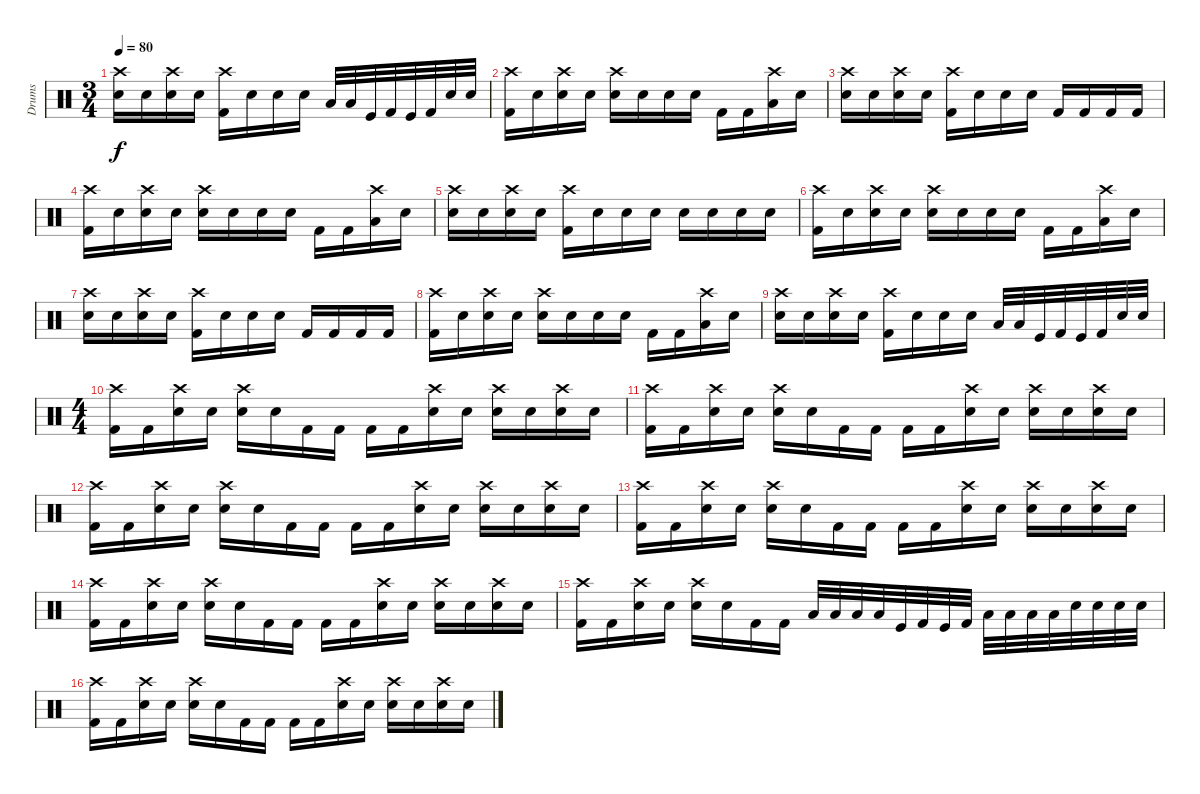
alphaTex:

\track ("Drums" "Drums") {instrument percussion}
\staff {score}
\articulation defaults
\ts (3 4)
\tempo 80
\clef neutral
\ks c
("Crash high (hit)" "Snare (hit) 2").16{dy f} "Snare (hit)"{x}.16 ("Crash high (hit)" "Snare (hit)"{x}).16 "Snare (hit)"{x}.16 ("Crash high (hit)" "Kick (hit) 2").16 "Snare (hit)"{x}.16 "Snare (hit) 2".16 "Snare (hit)"{x}.16 "Low Floor Tom (hit)".32 "Low Floor Tom (hit)".32 "Kick (hit)".32 "Kick (hit) 2".32 "Kick (hit)".32 "Kick (hit) 2".32 "Snare (hit) 2".32 "Snare (hit) 2".32 |
("Crash high (hit)" "Kick (hit) 2").16 "Snare (hit)"{x}.16 ("Crash high (hit)" "Snare (hit)"{x}).16 "Snare (hit)"{x}.16 ("Crash high (hit)" "Snare (hit) 2").16 "Snare (hit)"{x}.16 "Snare (hit)"{x}.16 "Snare (hit)"{x}.16 "Kick (hit) 2".16 "Kick (hit) 2".16 ("Crash high (hit)" "Low Floor Tom (hit)"{x}).16 "Snare (hit)"{x}.16 |
("Crash high (hit)" "Snare (hit) 2").16 "Snare (hit)"{x}.16 ("Crash high (hit)" "Snare (hit)"{x}).16 "Snare (hit)"{x}.16 ("Crash high (hit)" "Kick (hit) 2").16 "Snare (hit)"{x}.16 "Snare (hit) 2".16 "Snare (hit)"{x}.16 "Kick (hit) 2".16 "Kick (hit) 2".16 "Kick (hit) 2".16 "Kick (hit) 2".16 |
("Crash high (hit)" "Kick (hit) 2").16 "Snare (hit)"{x}.16 ("Crash high (hit)" "Snare (hit)"{x}).16 "Snare (hit)"{x}.16 ("Crash high (hit)" "Snare (hit) 2").16 "Snare (hit)"{x}.16 "Snare (hit)"{x}.16 "Snare (hit)"{x}.16 "Kick (hit) 2".16 "Kick (hit) 2".16 ("Crash high (hit)" "Low Floor Tom (hit)"{x}).16 "Snare (hit)"{x}.16 |
("Crash high (hit)" "Snare (hit) 2").16 "Snare (hit)"{x}.16 ("Crash high (hit)" "Snare (hit)"{x}).16 "Snare (hit)"{x}.16 ("Crash high (hit)" "Kick (hit) 2").16 "Snare (hit)"{x}.16 "Snare (hit) 2".16 "Snare (hit)"{x}.16 "Snare (hit) 2".16 "Snare (hit) 2".16 "Snare (hit) 2".16 "Snare (hit) 2".16 |
("Crash high (hit)" "Kick (hit) 2").16 "Snare (hit)"{x}.16 ("Crash high (hit)" "Snare (hit)"{x}).16 "Snare (hit)"{x}.16 ("Crash high (hit)" "Snare (hit) 2").16 "Snare (hit)"{x}.16 "Snare (hit)"{x}.16 "Snare (hit)"{x}.16 "Kick (hit) 2".16 "Kick (hit) 2".16 ("Crash high (hit)" "Low Floor Tom (hit)"{x}).16 "Snare (hit)"{x}.16 |
("Crash high (hit)" "Snare (hit) 2").16 "Snare (hit)"{x}.16 ("Crash high (hit)" "Snare (hit)"{x}).16 "Snare (hit)"{x}.16 ("Crash high (hit)" "Kick (hit) 2").16 "Snare (hit)"{x}.16 "Snare (hit) 2".16 "Snare (hit)"{x}.16 "Kick (hit) 2".16 "Kick (hit) 2".16 "Kick (hit) 2".16 "Kick (hit) 2".16 |
("Crash high (hit)" "Kick (hit) 2").16 "Snare (hit)"{x}.16 ("Crash high (hit)" "Snare (hit)"{x}).16 "Snare (hit)"{x}.16 ("Crash high (hit)" "Snare (hit) 2").16 "Snare (hit)"{x}.16 "Snare (hit)"{x}.16 "Snare (hit)"{x}.16 "Kick (hit) 2".16 "Kick (hit) 2".16 ("Crash high (hit)" "Low Floor Tom (hit)"{x}).16 "Snare (hit)"{x}.16 |
("Crash high (hit)" "Snare (hit) 2").16 "Snare (hit)"{x}.16 ("Crash high (hit)" "Snare (hit)"{x}).16 "Snare (hit)"{x}.16 ("Crash high (hit)" "Kick (hit) 2").16 "Snare (hit)"{x}.16 "Snare (hit) 2".16 "Snare (hit)"{x}.16 "Low Floor Tom (hit)".32 "Low Floor Tom (hit)".32 "Kick (hit)".32 "Kick (hit) 2".32 "Kick (hit)".32 "Kick (hit) 2".32 "Snare (hit) 2".32 "Snare (hit) 2".32 |
\ts (4 4)
\section ("" "")
("Crash high (hit)" "Kick (hit) 2").16 "Kick (hit) 2".16 ("Crash high (hit)" "Snare (hit)"{x}).16 "Snare (hit)"{x}.16 ("Crash high (hit)" "Snare (hit) 2").16 "Snare (hit)"{x}.16 "Kick (hit) 2".16 "Kick (hit) 2".16 "Kick (hit) 2".16 "Kick (hit) 2".16 ("Crash high (hit)" "Snare (hit)"{x}).16 "Snare (hit)"{x}.16 ("Crash high (hit)" "Snare (hit) 2").16 "Snare (hit)"{x}.16 ("Crash high (hit)" "Snare (hit)"{x}).16 "Snare (hit)"{x}.16 |
("Crash high (hit)" "Kick (hit) 2").16 "Kick (hit) 2".16 ("Crash high (hit)" "Snare (hit)"{x}).16 "Snare (hit)"{x}.16 ("Crash high (hit)" "Snare (hit) 2").16 "Snare (hit)"{x}.16 "Kick (hit) 2".16 "Kick (hit) 2".16 "Kick (hit) 2".16 "Kick (hit) 2".16 ("Crash high (hit)" "Snare (hit)"{x}).16 "Snare (hit)"{x}.16 ("Crash high (hit)" "Snare (hit) 2").16 "Snare (hit)"{x}.16 ("Crash high (hit)" "Snare (hit) 2").16 "Snare (hit)"{x}.16 |
("Crash high (hit)" "Kick (hit) 2").16 "Kick (hit) 2".16 ("Crash high (hit)" "Snare (hit)"{x}).16 "Snare (hit)"{x}.16 ("Crash high (hit)" "Snare (hit) 2").16 "Snare (hit)"{x}.16 "Kick (hit) 2".16 "Kick (hit) 2".16 "Kick (hit) 2".16 "Kick (hit) 2".16 ("Crash high (hit)" "Snare (hit)"{x}).16 "Snare (hit)"{x}.16 ("Crash high (hit)" "Snare (hit) 2").16 "Snare (hit)"{x}.16 ("Crash high (hit)" "Snare (hit)"{x}).16 "Snare (hit)"{x}.16 |
("Crash high (hit)" "Kick (hit) 2").16 "Kick (hit) 2".16 ("Crash high (hit)" "Snare (hit)"{x}).16 "Snare (hit)"{x}.16 ("Crash high (hit)" "Snare (hit) 2").16 "Snare (hit)"{x}.16 "Kick (hit) 2".16 "Kick (hit) 2".16 "Kick (hit) 2".16 "Kick (hit) 2".16 ("Crash high (hit)" "Snare (hit)"{x}).16 "Snare (hit)"{x}.16 ("Crash high (hit)" "Snare (hit) 2").16 "Snare (hit) 2"{x}.16 ("Crash high (hit)" "Snare (hit) 2").16 "Snare (hit) 2"{x}.16 |
("Crash high (hit)" "Kick (hit) 2").16 "Kick (hit) 2".16 ("Crash high (hit)" "Snare (hit)"{x}).16 "Snare (hit)"{x}.16 ("Crash high (hit)" "Snare (hit) 2").16 "Snare (hit)"{x}.16 "Kick (hit) 2".16 "Kick (hit) 2".16 "Kick (hit) 2".16 "Kick (hit) 2".16 ("Crash high (hit)" "Snare (hit)"{x}).16 "Snare (hit)"{x}.16 ("Crash high (hit)" "Snare (hit) 2").16 "Snare (hit) 2"{x}.16 ("Crash high (hit)" "Snare (hit) 2").16 "Snare (hit) 2"{x}.16 |
("Crash high (hit)" "Kick (hit) 2").16 "Kick (hit) 2".16 ("Crash high (hit)" "Snare (hit)"{x}).16 "Snare (hit)"{x}.16 ("Crash high (hit)" "Snare (hit) 2").16 "Snare (hit)"{x}.16 "Kick (hit) 2".16 "Kick (hit) 2".16 "Low Floor Tom (hit)".32 "Low Floor Tom (hit)".32 "Low Floor Tom (hit)".32 "Low Floor Tom (hit)".32 "Kick (hit)".32 "Kick (hit) 2".32 "Kick (hit)".32 "Kick (hit) 2".32 "Low Floor Tom (hit)".32 "Low Floor Tom (hit)".32 "Low Floor Tom (hit)".32 "Low Floor Tom (hit)".32 "Snare (hit) 2".32 "Snare (hit) 2".32 "Snare (hit) 2".32 "Snare (hit) 2".32 |
\section ("" "")
("Crash high (hit)" "Kick (hit) 2").16 "Kick (hit) 2".16 ("Crash high (hit)" "Snare (hit)"{x}).16 "Snare (hit)"{x}.16 ("Crash high (hit)" "Snare (hit) 2").16 "Snare (hit)"{x}.16 "Kick (hit) 2".16 "Kick (hit) 2".16 "Kick (hit) 2".16 "Kick (hit) 2".16 ("Crash high (hit)" "Snare (hit)"{x}).16 "Snare (hit)"{x}.16 ("Crash high (hit)" "Snare (hit) 2").16 "Snare (hit)"{x}.16 ("Crash high (hit)" "Snare (hit)"{x}).16 "Snare (hit)"{x}.16
